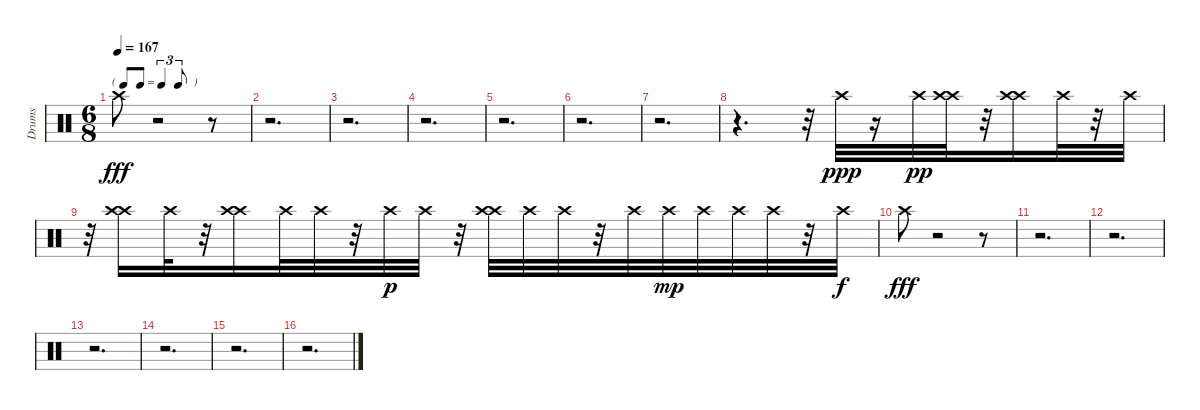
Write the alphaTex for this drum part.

\track ("Drums" "Drums") {instrument percussion}
\staff {score}
\articulation defaults
\ts (6 8)
\tf triplet8th
\tempo 167
\clef neutral
\ks c "Crash high (hit)".8{dy fff}
r.2 r.8 |
r.2{d} |
r.2{d} |
r.2{d} |
r.2{d} |
r.2{d} |
r.2{d} |
r.4{d} r.32 "Crash high (hit)".32{dy ppp} r.16 "Crash high (hit)".32{dy pp} ("Crash high (hit)" "Crash high (hit)").32 r.32 ("Crash high (hit)" "Crash high (hit)").16 "Crash high (hit)".32 r.32 "Crash high (hit)".32 |
r.32 ("Crash high (hit)" "Crash high (hit)").16 "Crash high (hit)".32 r.32 ("Crash high (hit)" "Crash high (hit)").16 "Crash high (hit)".32 "Crash high (hit)".32 r.32 "Crash high (hit)".32{dy p} "Crash high (hit)".32 r.32 ("Crash high (hit)" "Crash high (hit)").32 "Crash high (hit)".32 "Crash high (hit)".32 r.32 "Crash high (hit)".32 "Crash high (hit)".32{dy mp} "Crash high (hit)".32 "Crash high (hit)".32 "Crash high (hit)".32 r.32 "Crash high (hit)".32{dy f} |
"Crash high (hit)".8{dy fff} r.2 r.8 |
r.2{d} |
r.2{d} |
r.2{d} |
r.2{d} |
r.2{d} |
r.2{d}
